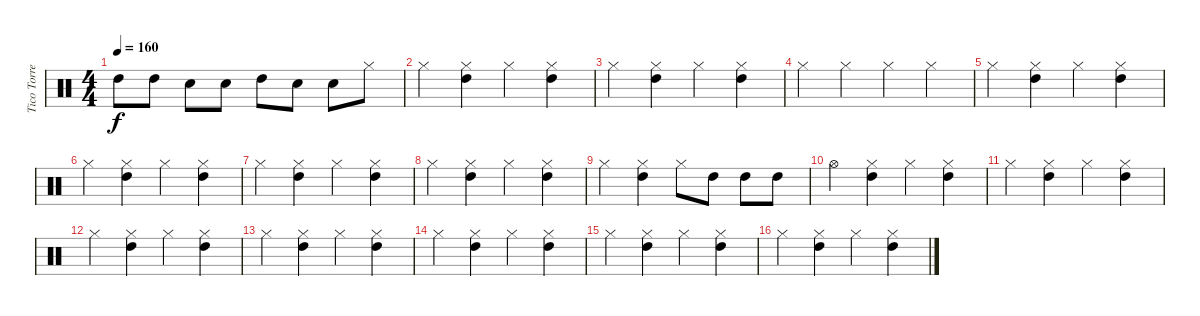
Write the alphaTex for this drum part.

\track ("Tico Torres" "Tico Torre") {instrument percussion}
\staff {score}
\articulation defaults
\ts (4 4)
\tempo 160
\clef neutral
\ks c "High Tom (hit)".8{dy f} "High Tom (hit)".8 "Snare (hit) 2".8 "Snare (hit) 2".8 "High Tom (hit)".8 "Snare (hit) 2".8 "Snare (hit) 2".8 "Hi-Hat (closed)".8
|
"Hi-Hat (closed)".4 ("Hi-Hat (closed)" "High Tom (hit)").4 "Hi-Hat (closed)".4 ("Hi-Hat (closed)" "High Tom (hit)").4 |
"Hi-Hat (closed)".4 ("Hi-Hat (closed)" "High Tom (hit)").4 "Hi-Hat (closed)".4 ("Hi-Hat (closed)" "High Tom (hit)").4 |
"Hi-Hat (closed)".4 "Hi-Hat (closed)".4 "Hi-Hat (closed)".4 "Hi-Hat (closed)".4 |
"Hi-Hat (closed)".4 ("Hi-Hat (closed)" "High Tom (hit)").4 "Hi-Hat (closed)".4 ("Hi-Hat (closed)" "High Tom (hit)").4 |
"Hi-Hat (closed)".4 ("Hi-Hat (closed)" "High Tom (hit)").4 "Hi-Hat (closed)".4 ("Hi-Hat (closed)" "High Tom (hit)").4 |
"Hi-Hat (closed)".4 ("Hi-Hat (closed)" "High Tom (hit)").4 "Hi-Hat (closed)".4 ("Hi-Hat (closed)" "High Tom (hit)").4 |
"Hi-Hat (closed)".4 ("Hi-Hat (closed)" "High Tom (hit)").4 "Hi-Hat (closed)".4 ("Hi-Hat (closed)" "High Tom (hit)").4 |
"Hi-Hat (closed)".4 ("High Tom (hit)" "Hi-Hat (closed)").4 "Hi-Hat (closed)".8 "High Tom (hit)".8 "High Tom (hit)".8 "High Tom (hit)".8 |
"Hi-Hat (open)".4 ("Hi-Hat (closed)" "High Tom (hit)").4 "Hi-Hat (closed)".4 ("Hi-Hat (closed)" "High Tom (hit)").4 |
"Hi-Hat (closed)".4 ("Hi-Hat (closed)" "High Tom (hit)").4 "Hi-Hat (closed)".4 ("Hi-Hat (closed)" "High Tom (hit)").4 |
"Hi-Hat (closed)".4 ("Hi-Hat (closed)" "High Tom (hit)").4 "Hi-Hat (closed)".4 ("Hi-Hat (closed)" "High Tom (hit)").4 |
"Hi-Hat (closed)".4 ("Hi-Hat (closed)" "High Tom (hit)").4 "Hi-Hat (closed)".4 ("Hi-Hat (closed)" "High Tom (hit)").4 |
"Hi-Hat (closed)".4 ("Hi-Hat (closed)" "High Tom (hit)").4 "Hi-Hat (closed)".4 ("Hi-Hat (closed)" "High Tom (hit)").4 |
"Hi-Hat (closed)".4 ("Hi-Hat (closed)" "High Tom (hit)").4 "Hi-Hat (closed)".4 ("Hi-Hat (closed)" "High Tom (hit)").4 |
"Hi-Hat (closed)".4 ("Hi-Hat (closed)" "High Tom (hit)").4 "Hi-Hat (closed)".4 ("Hi-Hat (closed)" "High Tom (hit)").4
